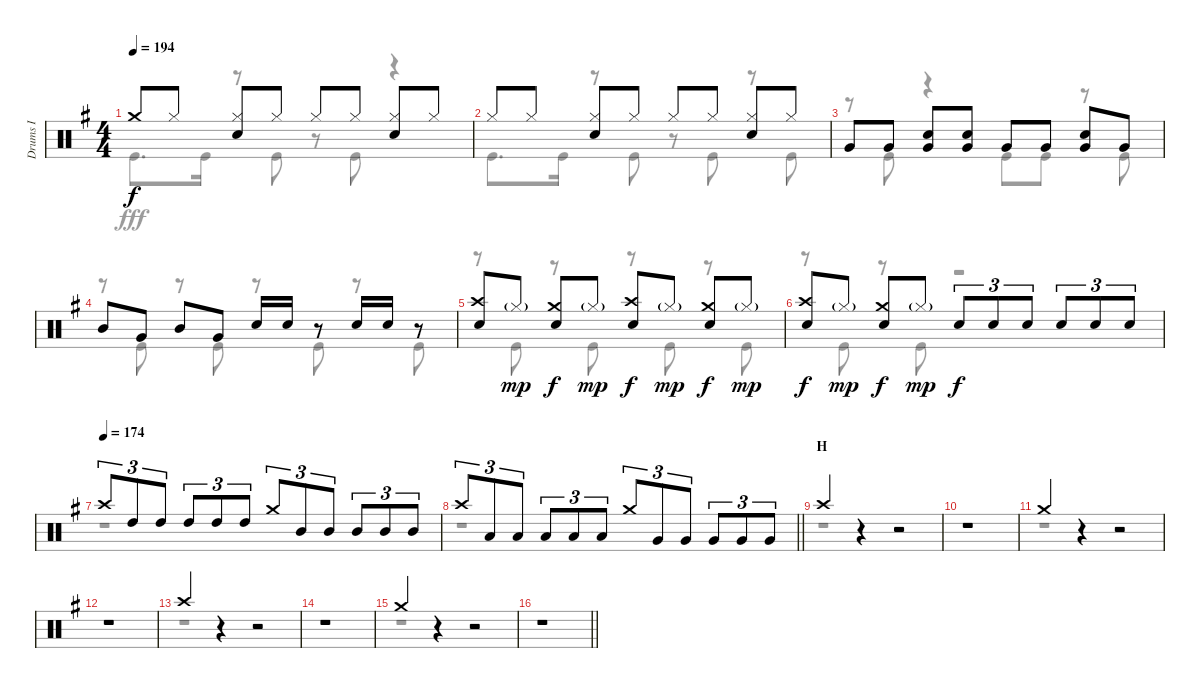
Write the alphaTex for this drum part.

\track ("Drums I" "Drums I") {instrument percussion}
\staff {score}
\articulation defaults
\voice
\ts (4 4)
\tempo 194
\clef neutral
\ks g "Crash medium (hit)".8{dy f} "Hi-Hat (closed)".8
("Hi-Hat (closed)" "Snare (hit) 2").8 "Hi-Hat (closed)".8 "Hi-Hat (closed)".8 "Hi-Hat (closed)".8 ("Hi-Hat (closed)" "Snare (hit) 2").8 "Hi-Hat (closed)".8 |
"Hi-Hat (closed)".8 "Hi-Hat (closed)".8 ("Hi-Hat (closed)" "Snare (hit) 2").8 "Hi-Hat (closed)".8 "Hi-Hat (closed)".8 "Hi-Hat (closed)".8 ("Hi-Hat (closed)" "Snare (hit) 2").8 "Hi-Hat (closed)".8 |
"Very Low Tom (hit)".8 "Very Low Tom (hit)".8 ("Snare (hit) 2" "Very Low Tom (hit)").8 ("Snare (hit) 2" "Very Low Tom (hit)").8 "Very Low Tom (hit)".8 "Very Low Tom (hit)".8 ("Snare (hit) 2" "Very Low Tom (hit)").8 "Very Low Tom (hit)".8 |
"Mid Tom (hit)".8 "Very Low Tom (hit)".8 "Mid Tom (hit)".8 "Very Low Tom (hit)".8 "Snare (hit) 2".16 "Snare (hit) 2".16 r.8 "Snare (hit) 2".16 "Snare (hit) 2".16 r.8 |
("Crash high (hit)" "Snare (hit) 2").8 "Hi-Hat (closed)"{g}.8{dy mp} ("Crash medium (hit)" "Snare (hit) 2").8{dy f} "Hi-Hat (closed)"{g}.8{dy mp} ("Crash high (hit)" "Snare (hit) 2").8{dy f} "Hi-Hat (closed)"{g}.8{dy mp} ("Crash medium (hit)" "Snare (hit) 2").8{dy f} "Hi-Hat (closed)"{g}.8{dy mp} |
("Crash high (hit)" "Snare (hit) 2").8{dy f} "Hi-Hat (closed)"{g}.8{dy mp} ("Crash medium (hit)" "Snare (hit) 2").8{dy f} "Hi-Hat (closed)"{g}.8{dy mp} "Snare (hit) 2".8{tu (3 2) dy f} "Snare (hit) 2".8{tu (3 2)} "Snare (hit) 2".8{tu (3 2)} "Snare (hit) 2".8{tu (3 2)} "Snare (hit) 2".8{tu (3 2)} "Snare (hit) 2".8{tu (3 2)} |
\tempo (174)
"Crash high (hit)".8{tu (3 2)} "High Tom (hit)".8{tu (3 2)} "High Tom (hit)".8{tu (3 2)} "High Tom (hit)".8{tu (3 2)} "High Tom (hit)".8{tu (3 2)} "High Tom (hit)".8{tu (3 2)} "Crash medium (hit)".8{tu (3 2)} "Mid Tom (hit)".8{tu (3 2)} "Mid Tom (hit)".8{tu (3 2)} "Mid Tom (hit)".8{tu (3 2)} "Mid Tom (hit)".8{tu (3 2)} "Mid Tom (hit)".8{tu (3 2)} |
\barLineRight lightlight "Crash high (hit)".8{tu (3 2)} "Low Tom (hit)".8{tu (3 2)} "Low Tom (hit)".8{tu (3 2)} "Low Tom (hit)".8{tu (3 2)} "Low Tom (hit)".8{tu (3 2)} "Low Tom (hit)".8{tu (3 2)} "Crash medium (hit)".8{tu (3 2)} "Very Low Tom (hit)".8{tu (3 2)} "Very Low Tom (hit)".8{tu (3 2)} "Very Low Tom (hit)".8{tu (3 2)} "Very Low Tom (hit)".8{tu (3 2)} "Very Low Tom (hit)".8{tu (3 2)}
|
\section ("" "H")
"Crash high (hit)".4 r.4 r.2 |
r.1 |
"Crash medium (hit)".4 r.4 r.2 |
r.1 |
"Crash high (hit)".4 r.4 r.2 |
r.1 |
"Crash medium (hit)".4 r.4 r.2 |
\barLineRight lightlight
r.1
\voice
\clef neutral
\ottava regular
\simile none
\ks g "Kick (hit)".8{d dy fff} "Kick (hit)".16
r.8 "Kick (hit)".8 r.8 "Kick (hit)".8 r.4 |
"Kick (hit)".8{d} "Kick (hit)".16 r.8 "Kick (hit)".8 r.8 "Kick (hit)".8 r.8 "Kick (hit)".8 |
r.8 "Kick (hit)".8 r.4 "Kick (hit)".8 "Kick (hit)".8 r.8 "Kick (hit)".8 |
r.8 "Kick (hit)".8 r.8 "Kick (hit)".8 r.8 "Kick (hit)".8 r.8 "Kick (hit)".8 |
r.8 "Kick (hit)".8 r.8 "Kick (hit)".8 r.8 "Kick (hit)".8 r.8 "Kick (hit)".8 |
r.8 "Kick (hit)".8 r.8 "Kick (hit)".8 r.2 |
r.1 |
\barLineRight lightlight
r.1 |
r.1 |
r.1 |
r.1 |
r.1 |
r.1 |
r.1 |
r.1 |
\barLineRight lightlight
r.1
